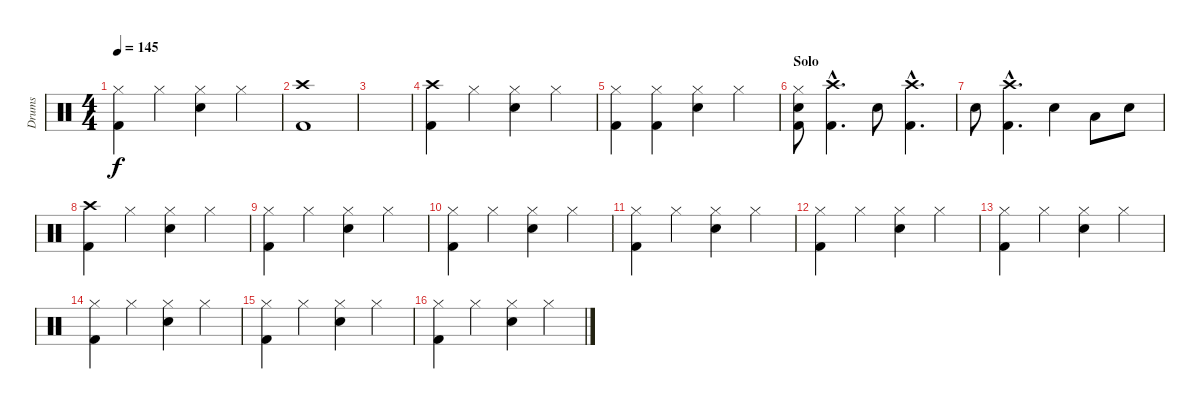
\track ("Drums" "Drums") {instrument percussion}
\staff {score}
\articulation defaults
\ts (4 4)
\tempo 145
\clef neutral
\ks c
("Hi-Hat (closed)" "Kick (hit) 2").4{dy f} "Hi-Hat (closed)".4 ("Hi-Hat (closed)" "Electric Snare (hit)").4 "Hi-Hat (closed)".4 |
("Crash high (hit)" "Kick (hit) 2").1 |
|
("Crash high (hit)" "Kick (hit) 2").4 "Hi-Hat (closed)".4 ("Hi-Hat (closed)" "Electric Snare (hit)").4 "Hi-Hat (closed)".4 |
("Hi-Hat (closed)" "Kick (hit) 2").4 ("Hi-Hat (closed)" "Kick (hit) 2").4 ("Hi-Hat (closed)" "Electric Snare (hit)").4 "Hi-Hat (closed)".4 |
\section ("" "Solo")
("Hi-Hat (closed)" "Electric Snare (hit)" "Kick (hit) 2").8 ("Crash high (hit)"{hac} "Kick (hit) 2"{hac}).4{d} "Electric Snare (hit)".8 ("Crash high (hit)"{hac} "Kick (hit) 2"{hac}).4{d} |
"Electric Snare (hit)".8 ("Crash high (hit)"{hac} "Kick (hit) 2"{hac}).4{d} "Electric Snare (hit)".4 "Low Tom (hit)".8 "Electric Snare (hit)".8 |
("Crash high (hit)" "Kick (hit) 2").4 "Hi-Hat (closed)".4 ("Hi-Hat (closed)" "Electric Snare (hit)").4 "Hi-Hat (closed)".4 |
("Hi-Hat (closed)" "Kick (hit) 2").4 "Hi-Hat (closed)".4 ("Hi-Hat (closed)" "Electric Snare (hit)").4 "Hi-Hat (closed)".4 |
("Hi-Hat (closed)" "Kick (hit) 2").4 "Hi-Hat (closed)".4 ("Hi-Hat (closed)" "Electric Snare (hit)").4 "Hi-Hat (closed)".4 |
("Hi-Hat (closed)" "Kick (hit) 2").4 "Hi-Hat (closed)".4 ("Hi-Hat (closed)" "Electric Snare (hit)").4 "Hi-Hat (closed)".4 |
("Hi-Hat (closed)" "Kick (hit) 2").4 "Hi-Hat (closed)".4 ("Hi-Hat (closed)" "Electric Snare (hit)").4 "Hi-Hat (closed)".4 |
("Hi-Hat (closed)" "Kick (hit) 2").4 "Hi-Hat (closed)".4 ("Hi-Hat (closed)" "Electric Snare (hit)").4 "Hi-Hat (closed)".4 |
("Hi-Hat (closed)" "Kick (hit) 2").4 "Hi-Hat (closed)".4 ("Hi-Hat (closed)" "Electric Snare (hit)").4 "Hi-Hat (closed)".4 |
("Hi-Hat (closed)" "Kick (hit) 2").4 "Hi-Hat (closed)".4 ("Hi-Hat (closed)" "Electric Snare (hit)").4 "Hi-Hat (closed)".4 |
("Hi-Hat (closed)" "Kick (hit) 2").4 "Hi-Hat (closed)".4 ("Hi-Hat (closed)" "Electric Snare (hit)").4 "Hi-Hat (closed)".4
